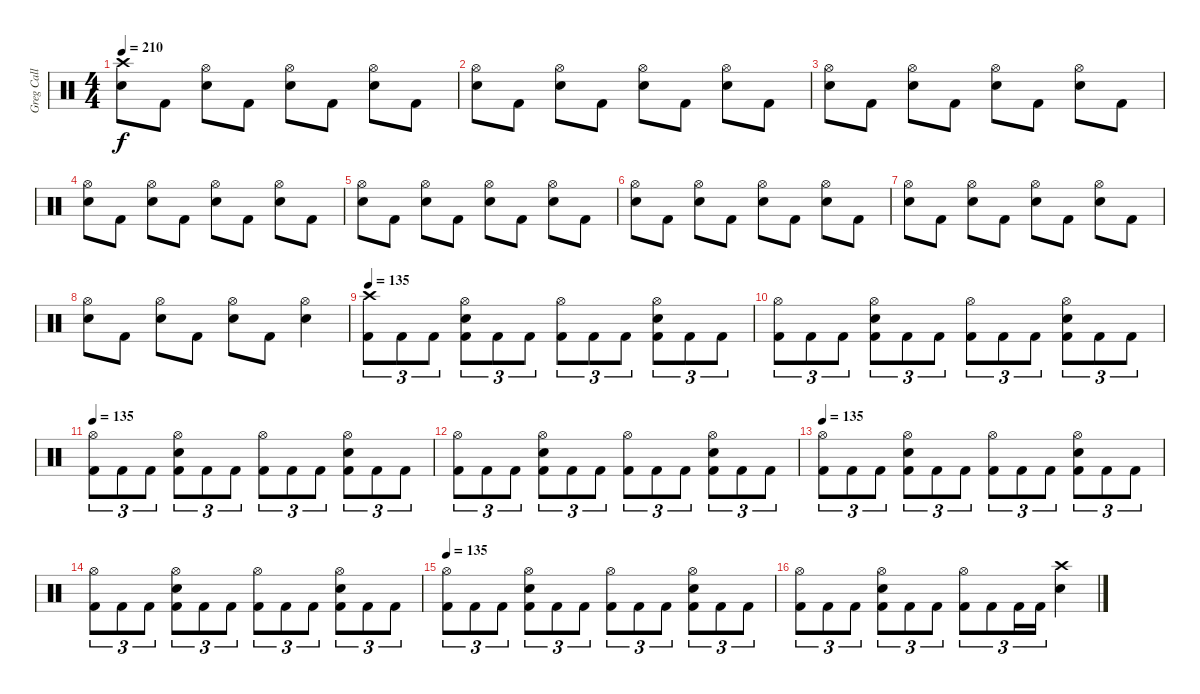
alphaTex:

\track ("Greg Call (Drums)" "Greg Call ") {instrument percussion}
\staff {score}
\articulation defaults
\ts (4 4)
\tempo 210
\clef neutral
\ks c
("Crash high (hit)" "Electric Snare (hit)").8{dy f volume 13} "Kick (hit) 2".8 ("Hi-Hat (open)" "Electric Snare (hit)").8 "Kick (hit) 2".8 ("Hi-Hat (open)" "Electric Snare (hit)").8 "Kick (hit) 2".8 ("Hi-Hat (open)" "Electric Snare (hit)").8 "Kick (hit) 2".8 |
("Hi-Hat (open)" "Electric Snare (hit)").8 "Kick (hit) 2".8 ("Hi-Hat (open)" "Electric Snare (hit)").8 "Kick (hit) 2".8 ("Hi-Hat (open)" "Electric Snare (hit)").8 "Kick (hit) 2".8 ("Hi-Hat (open)" "Electric Snare (hit)").8 "Kick (hit) 2".8 |
("Hi-Hat (open)" "Electric Snare (hit)").8 "Kick (hit) 2".8 ("Hi-Hat (open)" "Electric Snare (hit)").8 "Kick (hit) 2".8 ("Hi-Hat (open)" "Electric Snare (hit)").8 "Kick (hit) 2".8 ("Hi-Hat (open)" "Electric Snare (hit)").8 "Kick (hit) 2".8 |
("Hi-Hat (open)" "Electric Snare (hit)").8 "Kick (hit) 2".8 ("Hi-Hat (open)" "Electric Snare (hit)").8 "Kick (hit) 2".8 ("Hi-Hat (open)" "Electric Snare (hit)").8 "Kick (hit) 2".8 ("Hi-Hat (open)" "Electric Snare (hit)").8 "Kick (hit) 2".8 |
("Hi-Hat (open)" "Electric Snare (hit)").8 "Kick (hit) 2".8 ("Hi-Hat (open)" "Electric Snare (hit)").8 "Kick (hit) 2".8 ("Hi-Hat (open)" "Electric Snare (hit)").8 "Kick (hit) 2".8 ("Hi-Hat (open)" "Electric Snare (hit)").8 "Kick (hit) 2".8 |
("Hi-Hat (open)" "Electric Snare (hit)").8 "Kick (hit) 2".8 ("Hi-Hat (open)" "Electric Snare (hit)").8 "Kick (hit) 2".8 ("Hi-Hat (open)" "Electric Snare (hit)").8 "Kick (hit) 2".8 ("Hi-Hat (open)" "Electric Snare (hit)").8 "Kick (hit) 2".8 |
("Hi-Hat (open)" "Electric Snare (hit)").8 "Kick (hit) 2".8 ("Hi-Hat (open)" "Electric Snare (hit)").8 "Kick (hit) 2".8 ("Hi-Hat (open)" "Electric Snare (hit)").8 "Kick (hit) 2".8 ("Hi-Hat (open)" "Electric Snare (hit)").8 "Kick (hit) 2".8 |
("Hi-Hat (open)" "Electric Snare (hit)").8 "Kick (hit) 2".8 ("Hi-Hat (open)" "Electric Snare (hit)").8 "Kick (hit) 2".8 ("Hi-Hat (open)" "Electric Snare (hit)").8 "Kick (hit) 2".8 ("Hi-Hat (open)" "Electric Snare (hit)").4 |
\tempo 135
("Crash high (hit)" "Kick (hit) 2").8{tu (3 2)} "Kick (hit) 2".8{tu (3 2)} "Kick (hit) 2".8{tu (3 2)} ("Hi-Hat (open)" "Electric Snare (hit)" "Kick (hit) 2").8{tu (3 2)} "Kick (hit) 2".8{tu (3 2)} "Kick (hit) 2".8{tu (3 2)} ("Hi-Hat (open)" "Kick (hit) 2").8{tu (3 2)} "Kick (hit) 2".8{tu (3 2)} "Kick (hit) 2".8{tu (3 2)} ("Hi-Hat (open)" "Electric Snare (hit)" "Kick (hit) 2").8{tu (3 2)} "Kick (hit) 2".8{tu (3 2)} "Kick (hit) 2".8{tu (3 2)} |
("Hi-Hat (open)" "Kick (hit) 2").8{tu (3 2)} "Kick (hit) 2".8{tu (3 2)} "Kick (hit) 2".8{tu (3 2)} ("Hi-Hat (open)" "Electric Snare (hit)" "Kick (hit) 2").8{tu (3 2)} "Kick (hit) 2".8{tu (3 2)} "Kick (hit) 2".8{tu (3 2)} ("Hi-Hat (open)" "Kick (hit) 2").8{tu (3 2)} "Kick (hit) 2".8{tu (3 2)} "Kick (hit) 2".8{tu (3 2)} ("Hi-Hat (open)" "Electric Snare (hit)" "Kick (hit) 2").8{tu (3 2)} "Kick (hit) 2".8{tu (3 2)} "Kick (hit) 2".8{tu (3 2)} |
\tempo 135
("Hi-Hat (open)" "Kick (hit) 2").8{tu (3 2)} "Kick (hit) 2".8{tu (3 2)} "Kick (hit) 2".8{tu (3 2)} ("Hi-Hat (open)" "Electric Snare (hit)" "Kick (hit) 2").8{tu (3 2)} "Kick (hit) 2".8{tu (3 2)} "Kick (hit) 2".8{tu (3 2)} ("Hi-Hat (open)" "Kick (hit) 2").8{tu (3 2)} "Kick (hit) 2".8{tu (3 2)} "Kick (hit) 2".8{tu (3 2)} ("Hi-Hat (open)" "Electric Snare (hit)" "Kick (hit) 2").8{tu (3 2)} "Kick (hit) 2".8{tu (3 2)} "Kick (hit) 2".8{tu (3 2)} |
("Hi-Hat (open)" "Kick (hit) 2").8{tu (3 2)} "Kick (hit) 2".8{tu (3 2)} "Kick (hit) 2".8{tu (3 2)} ("Hi-Hat (open)" "Electric Snare (hit)" "Kick (hit) 2").8{tu (3 2)} "Kick (hit) 2".8{tu (3 2)} "Kick (hit) 2".8{tu (3 2)} ("Hi-Hat (open)" "Kick (hit) 2").8{tu (3 2)} "Kick (hit) 2".8{tu (3 2)} "Kick (hit) 2".8{tu (3 2)} ("Hi-Hat (open)" "Electric Snare (hit)" "Kick (hit) 2").8{tu (3 2)} "Kick (hit) 2".8{tu (3 2)} "Kick (hit) 2".8{tu (3 2)} |
\tempo 135
("Hi-Hat (open)" "Kick (hit) 2").8{tu (3 2)} "Kick (hit) 2".8{tu (3 2)} "Kick (hit) 2".8{tu (3 2)} ("Hi-Hat (open)" "Electric Snare (hit)" "Kick (hit) 2").8{tu (3 2)} "Kick (hit) 2".8{tu (3 2)} "Kick (hit) 2".8{tu (3 2)} ("Hi-Hat (open)" "Kick (hit) 2").8{tu (3 2)} "Kick (hit) 2".8{tu (3 2)} "Kick (hit) 2".8{tu (3 2)} ("Hi-Hat (open)" "Electric Snare (hit)" "Kick (hit) 2").8{tu (3 2)} "Kick (hit) 2".8{tu (3 2)} "Kick (hit) 2".8{tu (3 2)} |
("Hi-Hat (open)" "Kick (hit) 2").8{tu (3 2)} "Kick (hit) 2".8{tu (3 2)} "Kick (hit) 2".8{tu (3 2)} ("Hi-Hat (open)" "Electric Snare (hit)" "Kick (hit) 2").8{tu (3 2)} "Kick (hit) 2".8{tu (3 2)} "Kick (hit) 2".8{tu (3 2)} ("Hi-Hat (open)" "Kick (hit) 2").8{tu (3 2)} "Kick (hit) 2".8{tu (3 2)} "Kick (hit) 2".8{tu (3 2)} ("Hi-Hat (open)" "Electric Snare (hit)" "Kick (hit) 2").8{tu (3 2)} "Kick (hit) 2".8{tu (3 2)} "Kick (hit) 2".8{tu (3 2)} |
\tempo 135
("Hi-Hat (open)" "Kick (hit) 2").8{tu (3 2)} "Kick (hit) 2".8{tu (3 2)} "Kick (hit) 2".8{tu (3 2)} ("Hi-Hat (open)" "Electric Snare (hit)" "Kick (hit) 2").8{tu (3 2)} "Kick (hit) 2".8{tu (3 2)} "Kick (hit) 2".8{tu (3 2)} ("Hi-Hat (open)" "Kick (hit) 2").8{tu (3 2)} "Kick (hit) 2".8{tu (3 2)} "Kick (hit) 2".8{tu (3 2)} ("Hi-Hat (open)" "Electric Snare (hit)" "Kick (hit) 2").8{tu (3 2)} "Kick (hit) 2".8{tu (3 2)} "Kick (hit) 2".8{tu (3 2)} |
("Hi-Hat (open)" "Kick (hit) 2").8{tu (3 2)} "Kick (hit) 2".8{tu (3 2)} "Kick (hit) 2".8{tu (3 2)} ("Hi-Hat (open)" "Electric Snare (hit)" "Kick (hit) 2").8{tu (3 2)} "Kick (hit) 2".8{tu (3 2)} "Kick (hit) 2".8{tu (3 2)} ("Hi-Hat (open)" "Kick (hit) 2").8{tu (3 2)} "Kick (hit) 2".8{tu (3 2)} "Kick (hit) 2".16{tu (3 2)} "Kick (hit) 2".16{tu (3 2)} ("Crash high (hit)" "Electric Snare (hit)").4
